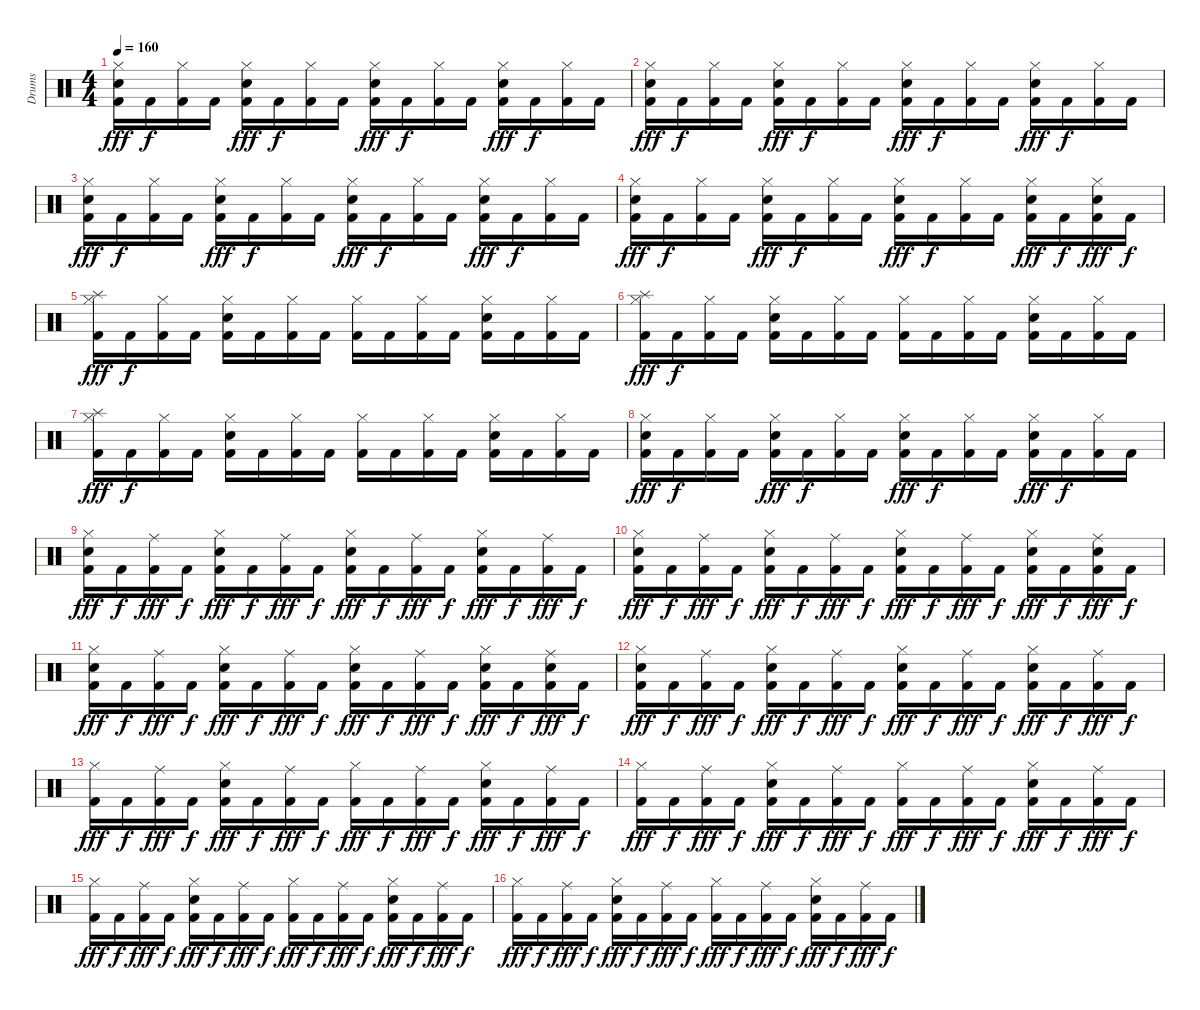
\track ("Drums" "Drums") {instrument percussion}
\staff {score}
\articulation defaults
\ts (4 4)
\tempo 160
\clef neutral
\ks c
("Hi-Hat (closed)" "Snare (hit) 2" "Kick (hit) 2").16{dy fff} "Kick (hit) 2".16{dy f} ("Hi-Hat (closed)" "Kick (hit) 2").16 "Kick (hit) 2".16 ("Hi-Hat (closed)" "Snare (hit) 2" "Kick (hit) 2").16{dy fff} "Kick (hit) 2".16{dy f} ("Hi-Hat (closed)" "Kick (hit) 2").16 "Kick (hit) 2".16 ("Hi-Hat (closed)" "Snare (hit) 2" "Kick (hit) 2").16{dy fff} "Kick (hit) 2".16{dy f} ("Hi-Hat (closed)" "Kick (hit) 2").16 "Kick (hit) 2".16 ("Hi-Hat (closed)" "Snare (hit) 2" "Kick (hit) 2").16{dy fff} "Kick (hit) 2".16{dy f} ("Hi-Hat (closed)" "Kick (hit) 2").16 "Kick (hit) 2".16 |
("Hi-Hat (closed)" "Snare (hit) 2" "Kick (hit) 2").16{dy fff} "Kick (hit) 2".16{dy f} ("Hi-Hat (closed)" "Kick (hit) 2").16 "Kick (hit) 2".16 ("Hi-Hat (closed)" "Snare (hit) 2" "Kick (hit) 2").16{dy fff} "Kick (hit) 2".16{dy f} ("Hi-Hat (closed)" "Kick (hit) 2").16 "Kick (hit) 2".16 ("Hi-Hat (closed)" "Snare (hit) 2" "Kick (hit) 2").16{dy fff} "Kick (hit) 2".16{dy f} ("Hi-Hat (closed)" "Kick (hit) 2").16 "Kick (hit) 2".16 ("Hi-Hat (closed)" "Snare (hit) 2" "Kick (hit) 2").16{dy fff} "Kick (hit) 2".16{dy f} ("Hi-Hat (closed)" "Kick (hit) 2").16 "Kick (hit) 2".16 |
("Hi-Hat (closed)" "Snare (hit) 2" "Kick (hit) 2").16{dy fff} "Kick (hit) 2".16{dy f} ("Hi-Hat (closed)" "Kick (hit) 2").16 "Kick (hit) 2".16 ("Hi-Hat (closed)" "Snare (hit) 2" "Kick (hit) 2").16{dy fff} "Kick (hit) 2".16{dy f} ("Hi-Hat (closed)" "Kick (hit) 2").16 "Kick (hit) 2".16 ("Hi-Hat (closed)" "Snare (hit) 2" "Kick (hit) 2").16{dy fff} "Kick (hit) 2".16{dy f} ("Hi-Hat (closed)" "Kick (hit) 2").16 "Kick (hit) 2".16 ("Hi-Hat (closed)" "Snare (hit) 2" "Kick (hit) 2").16{dy fff} "Kick (hit) 2".16{dy f} ("Hi-Hat (closed)" "Kick (hit) 2").16 "Kick (hit) 2".16 |
("Hi-Hat (closed)" "Snare (hit) 2" "Kick (hit) 2").16{dy fff} "Kick (hit) 2".16{dy f} ("Hi-Hat (closed)" "Kick (hit) 2").16 "Kick (hit) 2".16 ("Hi-Hat (closed)" "Snare (hit) 2" "Kick (hit) 2").16{dy fff} "Kick (hit) 2".16{dy f} ("Hi-Hat (closed)" "Kick (hit) 2").16 "Kick (hit) 2".16 ("Hi-Hat (closed)" "Snare (hit) 2" "Kick (hit) 2").16{dy fff} "Kick (hit) 2".16{dy f} ("Hi-Hat (closed)" "Kick (hit) 2").16 "Kick (hit) 2".16 ("Hi-Hat (closed)" "Snare (hit) 2" "Kick (hit) 2").16{dy fff} "Kick (hit) 2".16{dy f} ("Hi-Hat (closed)" "Snare (hit) 2" "Kick (hit) 2").16{dy fff} "Kick (hit) 2".16{dy f} |
("Splash (hit)" "Hi-Hat (closed)" "Kick (hit) 2").16{dy fff} "Kick (hit) 2".16{dy f} ("Hi-Hat (closed)" "Kick (hit) 2").16 "Kick (hit) 2".16 ("Hi-Hat (closed)" "Snare (hit) 2" "Kick (hit) 2").16 "Kick (hit) 2".16 ("Hi-Hat (closed)" "Kick (hit) 2").16 "Kick (hit) 2".16 ("Hi-Hat (closed)" "Kick (hit) 2").16 "Kick (hit) 2".16 ("Hi-Hat (closed)" "Kick (hit) 2").16 "Kick (hit) 2".16 ("Hi-Hat (closed)" "Snare (hit) 2" "Kick (hit) 2").16 "Kick (hit) 2".16 ("Hi-Hat (closed)" "Kick (hit) 2").16 "Kick (hit) 2".16 |
("Splash (hit)" "Hi-Hat (closed)" "Kick (hit) 2").16{dy fff} "Kick (hit) 2".16{dy f} ("Hi-Hat (closed)" "Kick (hit) 2").16 "Kick (hit) 2".16 ("Hi-Hat (closed)" "Snare (hit) 2" "Kick (hit) 2").16 "Kick (hit) 2".16 ("Hi-Hat (closed)" "Kick (hit) 2").16 "Kick (hit) 2".16 ("Hi-Hat (closed)" "Kick (hit) 2").16 "Kick (hit) 2".16 ("Hi-Hat (closed)" "Kick (hit) 2").16 "Kick (hit) 2".16 ("Hi-Hat (closed)" "Snare (hit) 2" "Kick (hit) 2").16 "Kick (hit) 2".16 ("Hi-Hat (closed)" "Kick (hit) 2").16 "Kick (hit) 2".16 |
("Splash (hit)" "Hi-Hat (closed)" "Kick (hit) 2").16{dy fff} "Kick (hit) 2".16{dy f} ("Hi-Hat (closed)" "Kick (hit) 2").16 "Kick (hit) 2".16 ("Hi-Hat (closed)" "Snare (hit) 2" "Kick (hit) 2").16 "Kick (hit) 2".16 ("Hi-Hat (closed)" "Kick (hit) 2").16 "Kick (hit) 2".16 ("Hi-Hat (closed)" "Kick (hit) 2").16 "Kick (hit) 2".16 ("Hi-Hat (closed)" "Kick (hit) 2").16 "Kick (hit) 2".16 ("Hi-Hat (closed)" "Snare (hit) 2" "Kick (hit) 2").16 "Kick (hit) 2".16 ("Hi-Hat (closed)" "Kick (hit) 2").16 "Kick (hit) 2".16 |
("Hi-Hat (closed)" "Snare (hit) 2" "Kick (hit) 2").16{dy fff} "Kick (hit) 2".16{dy f} ("Hi-Hat (closed)" "Kick (hit) 2").16 "Kick (hit) 2".16 ("Hi-Hat (closed)" "Snare (hit) 2" "Kick (hit) 2").16{dy fff} "Kick (hit) 2".16{dy f} ("Hi-Hat (closed)" "Kick (hit) 2").16 "Kick (hit) 2".16 ("Hi-Hat (closed)" "Snare (hit) 2" "Kick (hit) 2").16{dy fff} "Kick (hit) 2".16{dy f} ("Hi-Hat (closed)" "Kick (hit) 2").16 "Kick (hit) 2".16 ("Hi-Hat (closed)" "Snare (hit) 2" "Kick (hit) 2").16{dy fff} "Kick (hit) 2".16{dy f} ("Hi-Hat (closed)" "Kick (hit) 2").16 "Kick (hit) 2".16 |
("Hi-Hat (closed)" "Snare (hit) 2" "Kick (hit) 2").16{dy fff} "Kick (hit) 2".16{dy f} ("Ride (middle)" "Kick (hit) 2").16{dy fff} "Kick (hit) 2".16{dy f} ("Hi-Hat (closed)" "Snare (hit) 2" "Kick (hit) 2").16{dy fff} "Kick (hit) 2".16{dy f} ("Ride (middle)" "Kick (hit) 2").16{dy fff} "Kick (hit) 2".16{dy f} ("Hi-Hat (closed)" "Snare (hit) 2" "Kick (hit) 2").16{dy fff} "Kick (hit) 2".16{dy f} ("Ride (middle)" "Kick (hit) 2").16{dy fff} "Kick (hit) 2".16{dy f} ("Hi-Hat (closed)" "Snare (hit) 2" "Kick (hit) 2").16{dy fff} "Kick (hit) 2".16{dy f} ("Ride (middle)" "Kick (hit) 2").16{dy fff} "Kick (hit) 2".16{dy f} |
("Hi-Hat (closed)" "Snare (hit) 2" "Kick (hit) 2").16{dy fff} "Kick (hit) 2".16{dy f} ("Ride (middle)" "Kick (hit) 2").16{dy fff} "Kick (hit) 2".16{dy f} ("Hi-Hat (closed)" "Snare (hit) 2" "Kick (hit) 2").16{dy fff} "Kick (hit) 2".16{dy f} ("Ride (middle)" "Kick (hit) 2").16{dy fff} "Kick (hit) 2".16{dy f} ("Hi-Hat (closed)" "Snare (hit) 2" "Kick (hit) 2").16{dy fff} "Kick (hit) 2".16{dy f} ("Ride (middle)" "Kick (hit) 2").16{dy fff} "Kick (hit) 2".16{dy f} ("Hi-Hat (closed)" "Snare (hit) 2" "Kick (hit) 2").16{dy fff} "Kick (hit) 2".16{dy f} ("Ride (middle)" "Snare (hit) 2" "Kick (hit) 2").16{dy fff} "Kick (hit) 2".16{dy f} |
("Hi-Hat (closed)" "Snare (hit) 2" "Kick (hit) 2").16{dy fff} "Kick (hit) 2".16{dy f} ("Ride (middle)" "Kick (hit) 2").16{dy fff} "Kick (hit) 2".16{dy f} ("Hi-Hat (closed)" "Snare (hit) 2" "Kick (hit) 2").16{dy fff} "Kick (hit) 2".16{dy f} ("Ride (middle)" "Kick (hit) 2").16{dy fff} "Kick (hit) 2".16{dy f} ("Hi-Hat (closed)" "Snare (hit) 2" "Kick (hit) 2").16{dy fff} "Kick (hit) 2".16{dy f} ("Ride (middle)" "Kick (hit) 2").16{dy fff} "Kick (hit) 2".16{dy f} ("Hi-Hat (closed)" "Snare (hit) 2" "Kick (hit) 2").16{dy fff} "Kick (hit) 2".16{dy f} ("Ride (middle)" "Snare (hit) 2" "Kick (hit) 2").16{dy fff} "Kick (hit) 2".16{dy f} |
("Hi-Hat (closed)" "Snare (hit) 2" "Kick (hit) 2").16{dy fff} "Kick (hit) 2".16{dy f} ("Ride (middle)" "Kick (hit) 2").16{dy fff} "Kick (hit) 2".16{dy f} ("Hi-Hat (closed)" "Snare (hit) 2" "Kick (hit) 2").16{dy fff} "Kick (hit) 2".16{dy f} ("Ride (middle)" "Kick (hit) 2").16{dy fff} "Kick (hit) 2".16{dy f} ("Hi-Hat (closed)" "Snare (hit) 2" "Kick (hit) 2").16{dy fff} "Kick (hit) 2".16{dy f} ("Ride (middle)" "Kick (hit) 2").16{dy fff} "Kick (hit) 2".16{dy f} ("Hi-Hat (closed)" "Snare (hit) 2" "Kick (hit) 2").16{dy fff} "Kick (hit) 2".16{dy f} ("Ride (middle)" "Kick (hit) 2").16{dy fff} "Kick (hit) 2".16{dy f} |
("Hi-Hat (closed)" "Kick (hit) 2").16{dy fff} "Kick (hit) 2".16{dy f} ("Ride (middle)" "Kick (hit) 2").16{dy fff} "Kick (hit) 2".16{dy f} ("Hi-Hat (closed)" "Snare (hit) 2" "Kick (hit) 2").16{dy fff} "Kick (hit) 2".16{dy f} ("Ride (middle)" "Kick (hit) 2").16{dy fff} "Kick (hit) 2".16{dy f} ("Hi-Hat (closed)" "Kick (hit) 2").16{dy fff} "Kick (hit) 2".16{dy f} ("Ride (middle)" "Kick (hit) 2").16{dy fff} "Kick (hit) 2".16{dy f} ("Hi-Hat (closed)" "Snare (hit) 2" "Kick (hit) 2").16{dy fff} "Kick (hit) 2".16{dy f} ("Ride (middle)" "Kick (hit) 2").16{dy fff} "Kick (hit) 2".16{dy f} |
("Hi-Hat (closed)" "Kick (hit) 2").16{dy fff} "Kick (hit) 2".16{dy f} ("Ride (middle)" "Kick (hit) 2").16{dy fff} "Kick (hit) 2".16{dy f} ("Hi-Hat (closed)" "Snare (hit) 2" "Kick (hit) 2").16{dy fff} "Kick (hit) 2".16{dy f} ("Ride (middle)" "Kick (hit) 2").16{dy fff} "Kick (hit) 2".16{dy f} ("Hi-Hat (closed)" "Kick (hit) 2").16{dy fff} "Kick (hit) 2".16{dy f} ("Ride (middle)" "Kick (hit) 2").16{dy fff} "Kick (hit) 2".16{dy f} ("Hi-Hat (closed)" "Snare (hit) 2" "Kick (hit) 2").16{dy fff} "Kick (hit) 2".16{dy f} ("Ride (middle)" "Kick (hit) 2").16{dy fff} "Kick (hit) 2".16{dy f} |
("Hi-Hat (closed)" "Kick (hit) 2").16{dy fff} "Kick (hit) 2".16{dy f} ("Ride (middle)" "Kick (hit) 2").16{dy fff} "Kick (hit) 2".16{dy f} ("Hi-Hat (closed)" "Snare (hit) 2" "Kick (hit) 2").16{dy fff} "Kick (hit) 2".16{dy f} ("Ride (middle)" "Kick (hit) 2").16{dy fff} "Kick (hit) 2".16{dy f} ("Hi-Hat (closed)" "Kick (hit) 2").16{dy fff} "Kick (hit) 2".16{dy f} ("Ride (middle)" "Kick (hit) 2").16{dy fff} "Kick (hit) 2".16{dy f} ("Hi-Hat (closed)" "Snare (hit) 2" "Kick (hit) 2").16{dy fff} "Kick (hit) 2".16{dy f} ("Ride (middle)" "Kick (hit) 2").16{dy fff} "Kick (hit) 2".16{dy f} |
("Hi-Hat (closed)" "Kick (hit) 2").16{dy fff} "Kick (hit) 2".16{dy f} ("Ride (middle)" "Kick (hit) 2").16{dy fff} "Kick (hit) 2".16{dy f} ("Hi-Hat (closed)" "Snare (hit) 2" "Kick (hit) 2").16{dy fff} "Kick (hit) 2".16{dy f} ("Ride (middle)" "Kick (hit) 2").16{dy fff} "Kick (hit) 2".16{dy f} ("Hi-Hat (closed)" "Kick (hit) 2").16{dy fff} "Kick (hit) 2".16{dy f} ("Ride (middle)" "Kick (hit) 2").16{dy fff} "Kick (hit) 2".16{dy f} ("Hi-Hat (closed)" "Snare (hit) 2" "Kick (hit) 2").16{dy fff} "Kick (hit) 2".16{dy f} ("Ride (middle)" "Kick (hit) 2").16{dy fff} "Kick (hit) 2".16{dy f}
